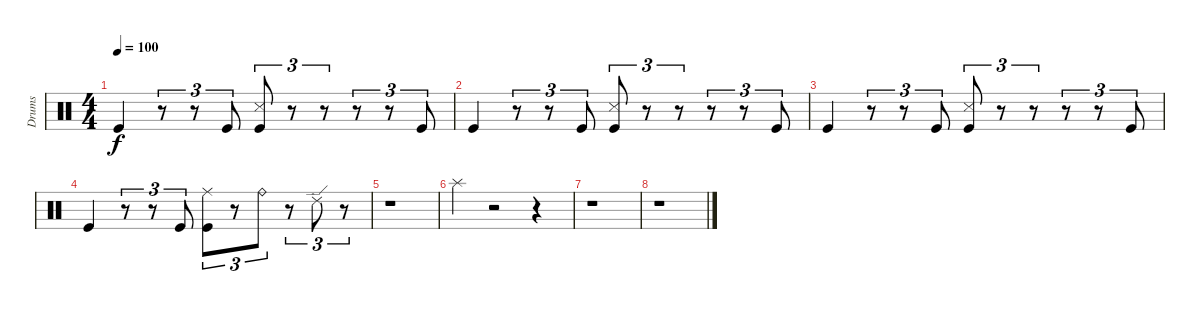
\track ("Drums" "Drums") {instrument percussion}
\staff {score}
\articulation defaults
\ts (4 4)
\tempo 100
\clef neutral
\ks c "Kick (hit)".4{dy f}
r.8{tu (3 2)} r.8{tu (3 2)} "Kick (hit)".8{tu (3 2)} ("Snare (side stick) 3" "Kick (hit)").8{tu (3 2)} r.8{tu (3 2)} r.8{tu (3 2)} r.8{tu (3 2)} r.8{tu (3 2)} "Kick (hit)".8{tu (3 2)} |
"Kick (hit)".4 r.8{tu (3 2)} r.8{tu (3 2)} "Kick (hit)".8{tu (3 2)} ("Snare (side stick) 3" "Kick (hit)").8{tu (3 2)} r.8{tu (3 2)} r.8{tu (3 2)} r.8{tu (3 2)} r.8{tu (3 2)} "Kick (hit)".8{tu (3 2)} |
"Kick (hit)".4 r.8{tu (3 2)} r.8{tu (3 2)} "Kick (hit)".8{tu (3 2)} ("Snare (side stick) 3" "Kick (hit)").8{tu (3 2)} r.8{tu (3 2)} r.8{tu (3 2)} r.8{tu (3 2)} r.8{tu (3 2)} "Kick (hit)".8{tu (3 2)} |
"Kick (hit)".4 r.8{tu (3 2)} r.8{tu (3 2)} "Kick (hit)".8{tu (3 2)} ("Ride (middle)" "Kick (hit)").8{tu (3 2)} r.8{tu (3 2)} "Ride (bell)".8{tu (3 2)} r.8{tu (3 2)} "Ride (edge) 2".8{tu (3 2)} r.8{tu (3 2)} |
r.1 |
"Splash (hit)".4 r.2 r.4 |
r.1 |
r.1
